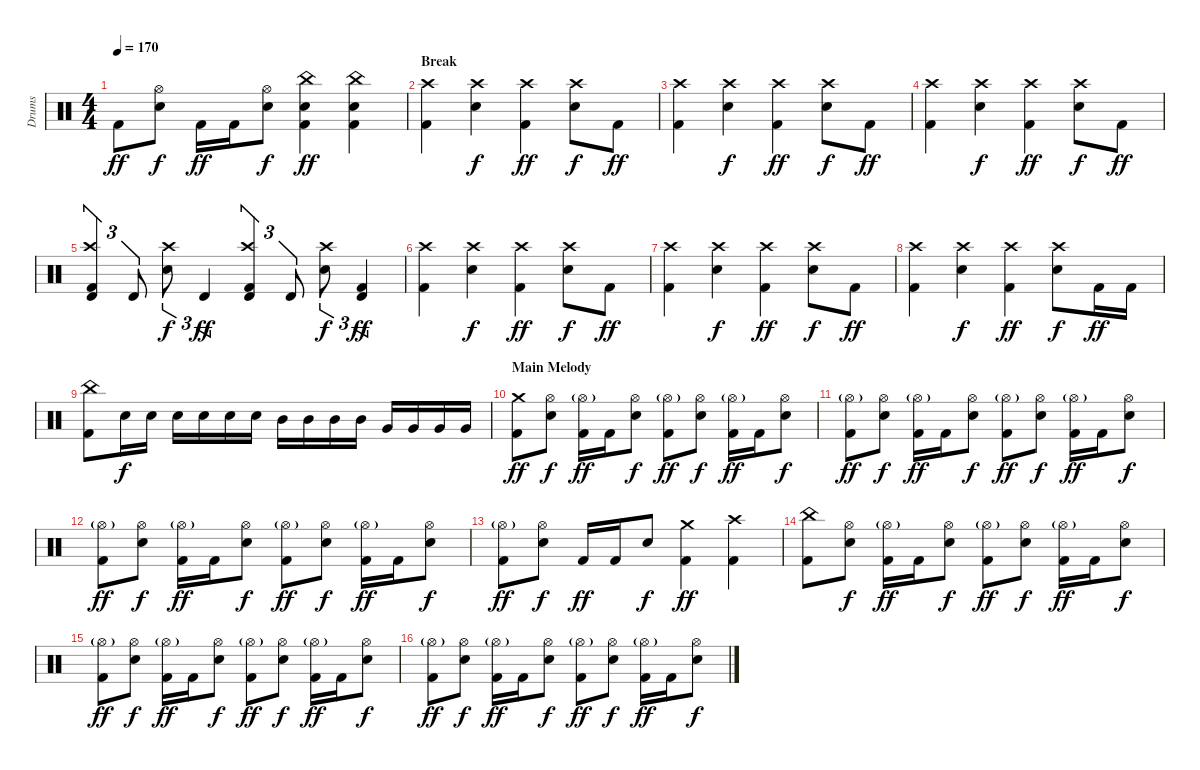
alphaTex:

\track ("Drums" "Drums") {instrument percussion}
\staff {score}
\articulation defaults
\ts (4 4)
\tempo 170
\clef neutral
\ks c "Kick (hit) 2".8{dy ff}
("Hi-Hat (open)" "Electric Snare (hit)").8{dy f} "Kick (hit) 2".16{dy ff} "Kick (hit) 2".16 ("Hi-Hat (open)" "Electric Snare (hit)").8{dy f} ("China (hit)" "Electric Snare (hit)" "Kick (hit) 2").4{dy ff} ("China (hit)" "Electric Snare (hit)" "Kick (hit) 2").4 |
\section ("" "Break")
("Crash high (hit)" "Kick (hit) 2").4{volume 13} ("Crash high (hit)" "Electric Snare (hit)").4{dy f} ("Crash high (hit)" "Kick (hit) 2").4{dy ff} ("Crash high (hit)" "Electric Snare (hit)").8{dy f} "Kick (hit) 2".8{dy ff} |
("Crash high (hit)" "Kick (hit) 2").4 ("Crash high (hit)" "Electric Snare (hit)").4{dy f} ("Crash high (hit)" "Kick (hit) 2").4{dy ff} ("Crash high (hit)" "Electric Snare (hit)").8{dy f} "Kick (hit) 2".8{dy ff} |
("Crash high (hit)" "Kick (hit) 2").4 ("Crash high (hit)" "Electric Snare (hit)").4{dy f} ("Crash high (hit)" "Kick (hit) 2").4{dy ff} ("Crash high (hit)" "Electric Snare (hit)").8{dy f} "Kick (hit) 2".8{dy ff} |
("Crash high (hit)" "Timbale high (hit)" "Kick (hit) 2").4{tu (3 2)} "Timbale high (hit)".8{tu (3 2)} ("Crash high (hit)" "Electric Snare (hit)").8{tu (3 2) dy f} "Timbale high (hit)".4{tu (3 2) dy ff} ("Crash high (hit)" "Timbale high (hit)" "Kick (hit) 2").4{tu (3 2)} "Timbale high (hit)".8{tu (3 2)} ("Crash high (hit)" "Electric Snare (hit)").8{tu (3 2) dy f} ("Timbale high (hit)" "Kick (hit) 2").4{tu (3 2) dy ff} |
("Crash high (hit)" "Kick (hit) 2").4 ("Crash high (hit)" "Electric Snare (hit)").4{dy f} ("Crash high (hit)" "Kick (hit) 2").4{dy ff} ("Crash high (hit)" "Electric Snare (hit)").8{dy f} "Kick (hit) 2".8{dy ff} |
("Crash high (hit)" "Kick (hit) 2").4 ("Crash high (hit)" "Electric Snare (hit)").4{dy f} ("Crash high (hit)" "Kick (hit) 2").4{dy ff} ("Crash high (hit)" "Electric Snare (hit)").8{dy f} "Kick (hit) 2".8{dy ff} |
("Crash high (hit)" "Kick (hit) 2").4 ("Crash high (hit)" "Electric Snare (hit)").4{dy f} ("Crash high (hit)" "Kick (hit) 2").4{dy ff} ("Crash high (hit)" "Electric Snare (hit)").8{dy f} "Kick (hit) 2".16{dy ff} "Kick (hit) 2".16 |
("China (hit)" "Kick (hit) 2").8 "Electric Snare (hit)".16{dy f} "Electric Snare (hit)".16 "Electric Snare (hit)".16 "Electric Snare (hit)".16 "Electric Snare (hit)".16 "Electric Snare (hit)".16 "Mid Tom (hit)".16 "Mid Tom (hit)".16 "Mid Tom (hit)".16 "Mid Tom (hit)".16 "Very Low Tom (hit)".16 "Very Low Tom (hit)".16 "Very Low Tom (hit)".16 "Very Low Tom (hit)".16 |
\section ("" "Main Melody")
("Crash medium (hit)" "Kick (hit) 2").8{dy ff} ("Hi-Hat (open)" "Electric Snare (hit)").8{dy f} ("Hi-Hat (open)"{g} "Kick (hit) 2").16{dy ff} "Kick (hit) 2".16 ("Hi-Hat (open)" "Electric Snare (hit)").8{dy f} ("Hi-Hat (open)"{g} "Kick (hit) 2").8{dy ff} ("Hi-Hat (open)" "Electric Snare (hit)").8{dy f} ("Hi-Hat (open)"{g} "Kick (hit) 2").16{dy ff} "Kick (hit) 2".16 ("Hi-Hat (open)" "Electric Snare (hit)").8{dy f} |
("Hi-Hat (open)"{g} "Kick (hit) 2").8{dy ff} ("Hi-Hat (open)" "Electric Snare (hit)").8{dy f} ("Hi-Hat (open)"{g} "Kick (hit) 2").16{dy ff} "Kick (hit) 2".16 ("Hi-Hat (open)" "Electric Snare (hit)").8{dy f} ("Hi-Hat (open)"{g} "Kick (hit) 2").8{dy ff} ("Hi-Hat (open)" "Electric Snare (hit)").8{dy f} ("Hi-Hat (open)"{g} "Kick (hit) 2").16{dy ff} "Kick (hit) 2".16 ("Hi-Hat (open)" "Electric Snare (hit)").8{dy f} |
("Hi-Hat (open)"{g} "Kick (hit) 2").8{dy ff} ("Hi-Hat (open)" "Electric Snare (hit)").8{dy f} ("Hi-Hat (open)"{g} "Kick (hit) 2").16{dy ff} "Kick (hit) 2".16 ("Hi-Hat (open)" "Electric Snare (hit)").8{dy f} ("Hi-Hat (open)"{g} "Kick (hit) 2").8{dy ff} ("Hi-Hat (open)" "Electric Snare (hit)").8{dy f} ("Hi-Hat (open)"{g} "Kick (hit) 2").16{dy ff} "Kick (hit) 2".16 ("Hi-Hat (open)" "Electric Snare (hit)").8{dy f} |
("Hi-Hat (open)"{g} "Kick (hit) 2").8{dy ff} ("Hi-Hat (open)" "Electric Snare (hit)").8{dy f} "Kick (hit) 2".16{dy ff} "Kick (hit) 2".16 "Electric Snare (hit)".8{dy f} ("Crash medium (hit)" "Kick (hit) 2").4{dy ff} ("Crash high (hit)" "Kick (hit) 2").4 |
("China (hit)" "Kick (hit) 2").8 ("Hi-Hat (open)" "Electric Snare (hit)").8{dy f} ("Hi-Hat (open)"{g} "Kick (hit) 2").16{dy ff} "Kick (hit) 2".16 ("Hi-Hat (open)" "Electric Snare (hit)").8{dy f} ("Hi-Hat (open)"{g} "Kick (hit) 2").8{dy ff} ("Hi-Hat (open)" "Electric Snare (hit)").8{dy f} ("Hi-Hat (open)"{g} "Kick (hit) 2").16{dy ff} "Kick (hit) 2".16 ("Hi-Hat (open)" "Electric Snare (hit)").8{dy f} |
("Hi-Hat (open)"{g} "Kick (hit) 2").8{dy ff} ("Hi-Hat (open)" "Electric Snare (hit)").8{dy f} ("Hi-Hat (open)"{g} "Kick (hit) 2").16{dy ff} "Kick (hit) 2".16 ("Hi-Hat (open)" "Electric Snare (hit)").8{dy f} ("Hi-Hat (open)"{g} "Kick (hit) 2").8{dy ff} ("Hi-Hat (open)" "Electric Snare (hit)").8{dy f} ("Hi-Hat (open)"{g} "Kick (hit) 2").16{dy ff} "Kick (hit) 2".16 ("Hi-Hat (open)" "Electric Snare (hit)").8{dy f} |
("Hi-Hat (open)"{g} "Kick (hit) 2").8{dy ff} ("Hi-Hat (open)" "Electric Snare (hit)").8{dy f} ("Hi-Hat (open)"{g} "Kick (hit) 2").16{dy ff} "Kick (hit) 2".16 ("Hi-Hat (open)" "Electric Snare (hit)").8{dy f} ("Hi-Hat (open)"{g} "Kick (hit) 2").8{dy ff} ("Hi-Hat (open)" "Electric Snare (hit)").8{dy f} ("Hi-Hat (open)"{g} "Kick (hit) 2").16{dy ff} "Kick (hit) 2".16 ("Hi-Hat (open)" "Electric Snare (hit)").8{dy f}
